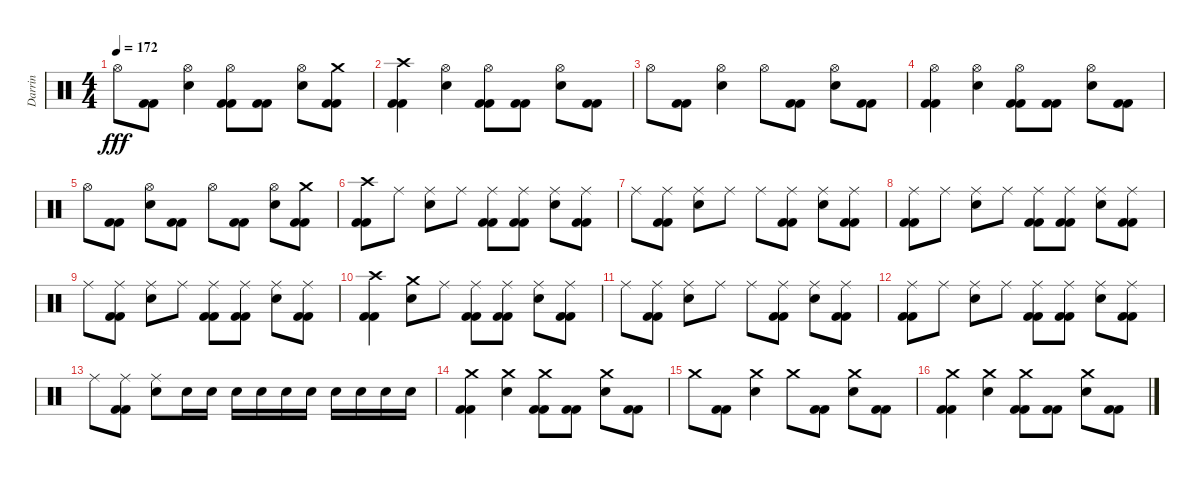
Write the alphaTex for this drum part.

\track ("Darrin" "Darrin") {instrument percussion}
\staff {score}
\articulation defaults
\ts (4 4)
\tempo 172
\clef neutral
\ks c "Hi-Hat (open)".8{dy fff}
("Kick (hit) 2" "Kick (hit) 2").8 ("Hi-Hat (open)" "Snare (hit) 2").4 ("Hi-Hat (open)" "Kick (hit) 2" "Kick (hit) 2").8 ("Kick (hit) 2" "Kick (hit) 2").8 ("Hi-Hat (open)" "Snare (hit) 2").8 ("Crash medium (hit)" "Kick (hit) 2" "Kick (hit) 2").8 |
("Crash high (hit)" "Kick (hit) 2" "Kick (hit) 2").4 ("Hi-Hat (open)" "Snare (hit) 2").4 ("Hi-Hat (open)" "Kick (hit) 2" "Kick (hit) 2").8 ("Kick (hit) 2" "Kick (hit) 2").8 ("Hi-Hat (open)" "Snare (hit) 2").8 ("Kick (hit) 2" "Kick (hit) 2").8 |
"Hi-Hat (open)".8 ("Kick (hit) 2" "Kick (hit) 2").8 ("Hi-Hat (open)" "Snare (hit) 2").4 "Hi-Hat (open)".8 ("Kick (hit) 2" "Kick (hit) 2").8 ("Hi-Hat (open)" "Snare (hit) 2").8 ("Kick (hit) 2" "Kick (hit) 2").8 |
("Hi-Hat (open)" "Kick (hit) 2" "Kick (hit) 2").4 ("Hi-Hat (open)" "Snare (hit) 2").4 ("Hi-Hat (open)" "Kick (hit) 2" "Kick (hit) 2").8 ("Kick (hit) 2" "Kick (hit) 2").8 ("Hi-Hat (open)" "Snare (hit) 2").8 ("Kick (hit) 2" "Kick (hit) 2").8 |
"Hi-Hat (open)".8 ("Kick (hit) 2" "Kick (hit) 2").8 ("Hi-Hat (open)" "Snare (hit) 2").8 ("Kick (hit) 2" "Kick (hit) 2").8 "Hi-Hat (open)".8 ("Kick (hit) 2" "Kick (hit) 2").8 ("Hi-Hat (open)" "Snare (hit) 2").8 ("Crash medium (hit)" "Kick (hit) 2" "Kick (hit) 2").8 |
("Crash high (hit)" "Kick (hit) 2" "Kick (hit) 2").8 "Ride (middle)".8 ("Ride (middle)" "Snare (hit) 2").8 "Ride (middle)".8 ("Ride (middle)" "Kick (hit) 2" "Kick (hit) 2").8 ("Ride (middle)" "Kick (hit) 2" "Kick (hit) 2").8 ("Ride (middle)" "Snare (hit) 2").8 ("Ride (middle)" "Kick (hit) 2" "Kick (hit) 2").8 |
"Ride (middle)".8 ("Ride (middle)" "Kick (hit) 2" "Kick (hit) 2").8 ("Ride (middle)" "Snare (hit) 2").8 "Ride (middle)".8 "Ride (middle)".8 ("Ride (middle)" "Kick (hit) 2" "Kick (hit) 2").8 ("Ride (middle)" "Snare (hit) 2").8 ("Ride (middle)" "Kick (hit) 2" "Kick (hit) 2").8 |
("Ride (middle)" "Kick (hit) 2" "Kick (hit) 2").8 "Ride (middle)".8 ("Ride (middle)" "Snare (hit) 2").8 "Ride (middle)".8 ("Ride (middle)" "Kick (hit) 2" "Kick (hit) 2").8 ("Ride (middle)" "Kick (hit) 2" "Kick (hit) 2").8 ("Ride (middle)" "Snare (hit) 2").8 ("Ride (middle)" "Kick (hit) 2" "Kick (hit) 2").8 |
"Ride (middle)".8 ("Ride (middle)" "Kick (hit) 2" "Kick (hit) 2").8 ("Ride (middle)" "Snare (hit) 2").8 "Ride (middle)".8 ("Ride (middle)" "Kick (hit) 2" "Kick (hit) 2").8 ("Ride (middle)" "Kick (hit) 2" "Kick (hit) 2").8 ("Ride (middle)" "Snare (hit) 2").8 ("Ride (middle)" "Kick (hit) 2" "Kick (hit) 2").8 |
("Crash high (hit)" "Kick (hit) 2" "Kick (hit) 2").4 ("Crash medium (hit)" "Snare (hit) 2").8 "Ride (middle)".8 ("Ride (middle)" "Kick (hit) 2" "Kick (hit) 2").8 ("Ride (middle)" "Kick (hit) 2" "Kick (hit) 2").8 ("Ride (middle)" "Snare (hit) 2").8 ("Ride (middle)" "Kick (hit) 2" "Kick (hit) 2").8 |
"Ride (middle)".8 ("Ride (middle)" "Kick (hit) 2" "Kick (hit) 2").8 ("Ride (middle)" "Snare (hit) 2").8 "Ride (middle)".8 "Ride (middle)".8 ("Ride (middle)" "Kick (hit) 2" "Kick (hit) 2").8 ("Ride (middle)" "Snare (hit) 2").8 ("Ride (middle)" "Kick (hit) 2" "Kick (hit) 2").8 |
("Ride (middle)" "Kick (hit) 2" "Kick (hit) 2").8 "Ride (middle)".8 ("Ride (middle)" "Snare (hit) 2").8 "Ride (middle)".8 ("Ride (middle)" "Kick (hit) 2" "Kick (hit) 2").8 ("Ride (middle)" "Kick (hit) 2" "Kick (hit) 2").8 ("Ride (middle)" "Snare (hit) 2").8 ("Ride (middle)" "Kick (hit) 2" "Kick (hit) 2").8 |
"Ride (middle)".8 ("Ride (middle)" "Kick (hit) 2" "Kick (hit) 2").8 ("Ride (middle)" "Snare (hit) 2").8 "Snare (hit) 2".16 "Snare (hit) 2".16 "Snare (hit) 2".16 "Snare (hit) 2".16 "Snare (hit) 2".16 "Snare (hit) 2".16 "Snare (hit) 2".16 "Snare (hit) 2".16 "Snare (hit) 2".16 "Snare (hit) 2".16 |
("Crash medium (hit)" "Kick (hit) 2" "Kick (hit) 2").4 ("Crash medium (hit)" "Snare (hit) 2").4 ("Crash medium (hit)" "Kick (hit) 2" "Kick (hit) 2").8 ("Kick (hit) 2" "Kick (hit) 2").8 ("Crash medium (hit)" "Snare (hit) 2").8 ("Kick (hit) 2" "Kick (hit) 2").8 |
"Crash medium (hit)".8 ("Kick (hit) 2" "Kick (hit) 2").8 ("Crash medium (hit)" "Snare (hit) 2").4 "Crash medium (hit)".8 ("Kick (hit) 2" "Kick (hit) 2").8 ("Crash medium (hit)" "Snare (hit) 2").8 ("Kick (hit) 2" "Kick (hit) 2").8 |
("Crash medium (hit)" "Kick (hit) 2" "Kick (hit) 2").4 ("Crash medium (hit)" "Snare (hit) 2").4 ("Crash medium (hit)" "Kick (hit) 2" "Kick (hit) 2").8 ("Kick (hit) 2" "Kick (hit) 2").8 ("Crash medium (hit)" "Snare (hit) 2").8 ("Kick (hit) 2" "Kick (hit) 2").8
